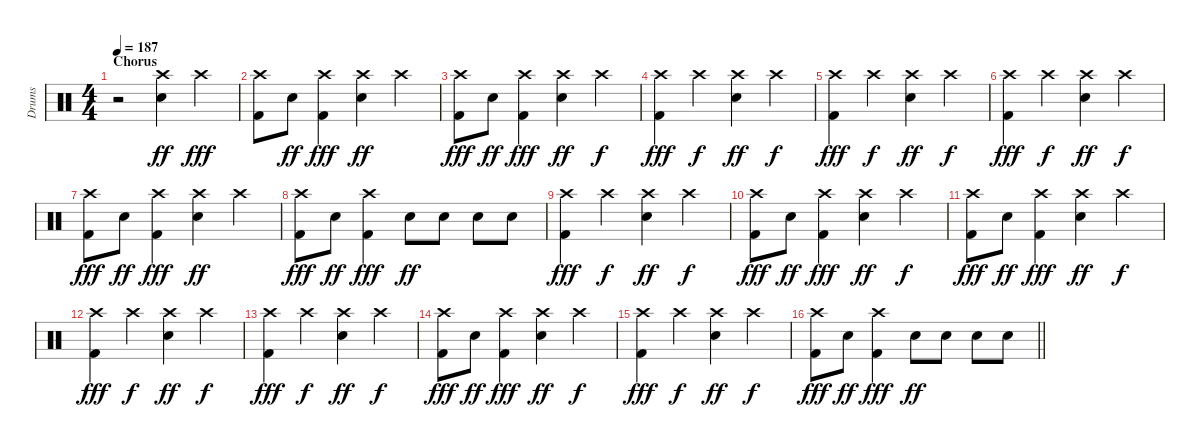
\track ("Drums" "Drums") {instrument percussion}
\staff {score}
\articulation defaults
\ts (4 4)
\section ("" "Chorus")
\tempo 187
\clef neutral
\ks c
r.2{dy f} ("Crash high (hit)" "Snare (hit) 2").4{dy ff} "Crash high (hit)".4{dy fff} |
("Crash high (hit)" "Kick (hit) 2").8 "Snare (hit) 2".8{dy ff} ("Crash high (hit)" "Kick (hit) 2").4{dy fff} ("Crash high (hit)" "Snare (hit) 2").4{dy ff} "Crash high (hit)".4 |
("Crash high (hit)" "Kick (hit) 2").8{dy fff} "Snare (hit) 2".8{dy ff} ("Crash high (hit)" "Kick (hit) 2").4{dy fff} ("Crash high (hit)" "Snare (hit) 2").4{dy ff} "Crash high (hit)".4{dy f} |
("Crash high (hit)" "Kick (hit) 2").4{dy fff} "Crash high (hit)".4{dy f} ("Crash high (hit)" "Snare (hit) 2").4{dy ff} "Crash high (hit)".4{dy f} |
("Crash high (hit)" "Kick (hit) 2").4{dy fff} "Crash high (hit)".4{dy f} ("Crash high (hit)" "Snare (hit) 2").4{dy ff} "Crash high (hit)".4{dy f} |
("Crash high (hit)" "Kick (hit) 2").4{dy fff} "Crash high (hit)".4{dy f} ("Crash high (hit)" "Snare (hit) 2").4{dy ff} "Crash high (hit)".4{dy f} |
("Crash high (hit)" "Kick (hit) 2").8{dy fff} "Snare (hit) 2".8{dy ff} ("Crash high (hit)" "Kick (hit) 2").4{dy fff} ("Crash high (hit)" "Snare (hit) 2").4{dy ff} "Crash high (hit)".4 |
("Crash high (hit)" "Kick (hit) 2").8{dy fff} "Snare (hit) 2".8{dy ff} ("Crash high (hit)" "Kick (hit) 2").4{dy fff} "Snare (hit) 2".8{dy ff} "Snare (hit) 2".8 "Snare (hit) 2".8 "Snare (hit) 2".8 |
("Crash high (hit)" "Kick (hit) 2").4{dy fff} "Crash high (hit)".4{dy f} ("Crash high (hit)" "Snare (hit) 2").4{dy ff} "Crash high (hit)".4{dy f} |
("Crash high (hit)" "Kick (hit) 2").8{dy fff} "Snare (hit) 2".8{dy ff} ("Crash high (hit)" "Kick (hit) 2").4{dy fff} ("Crash high (hit)" "Snare (hit) 2").4{dy ff} "Crash high (hit)".4{dy f} |
("Crash high (hit)" "Kick (hit) 2").8{dy fff} "Snare (hit) 2".8{dy ff} ("Crash high (hit)" "Kick (hit) 2").4{dy fff} ("Crash high (hit)" "Snare (hit) 2").4{dy ff} "Crash high (hit)".4{dy f} |
("Crash high (hit)" "Kick (hit) 2").4{dy fff} "Crash high (hit)".4{dy f} ("Crash high (hit)" "Snare (hit) 2").4{dy ff} "Crash high (hit)".4{dy f} |
("Crash high (hit)" "Kick (hit) 2").4{dy fff} "Crash high (hit)".4{dy f} ("Crash high (hit)" "Snare (hit) 2").4{dy ff} "Crash high (hit)".4{dy f} |
("Crash high (hit)" "Kick (hit) 2").8{dy fff} "Snare (hit) 2".8{dy ff} ("Crash high (hit)" "Kick (hit) 2").4{dy fff} ("Crash high (hit)" "Snare (hit) 2").4{dy ff} "Crash high (hit)".4{dy f} |
("Crash high (hit)" "Kick (hit) 2").4{dy fff} "Crash high (hit)".4{dy f} ("Crash high (hit)" "Snare (hit) 2").4{dy ff} "Crash high (hit)".4{dy f} |
\barLineRight lightlight
("Crash high (hit)" "Kick (hit) 2").8{dy fff} "Snare (hit) 2".8{dy ff} ("Crash high (hit)" "Kick (hit) 2").4{dy fff} "Snare (hit) 2".8{dy ff} "Snare (hit) 2".8 "Snare (hit) 2".8 "Snare (hit) 2".8
